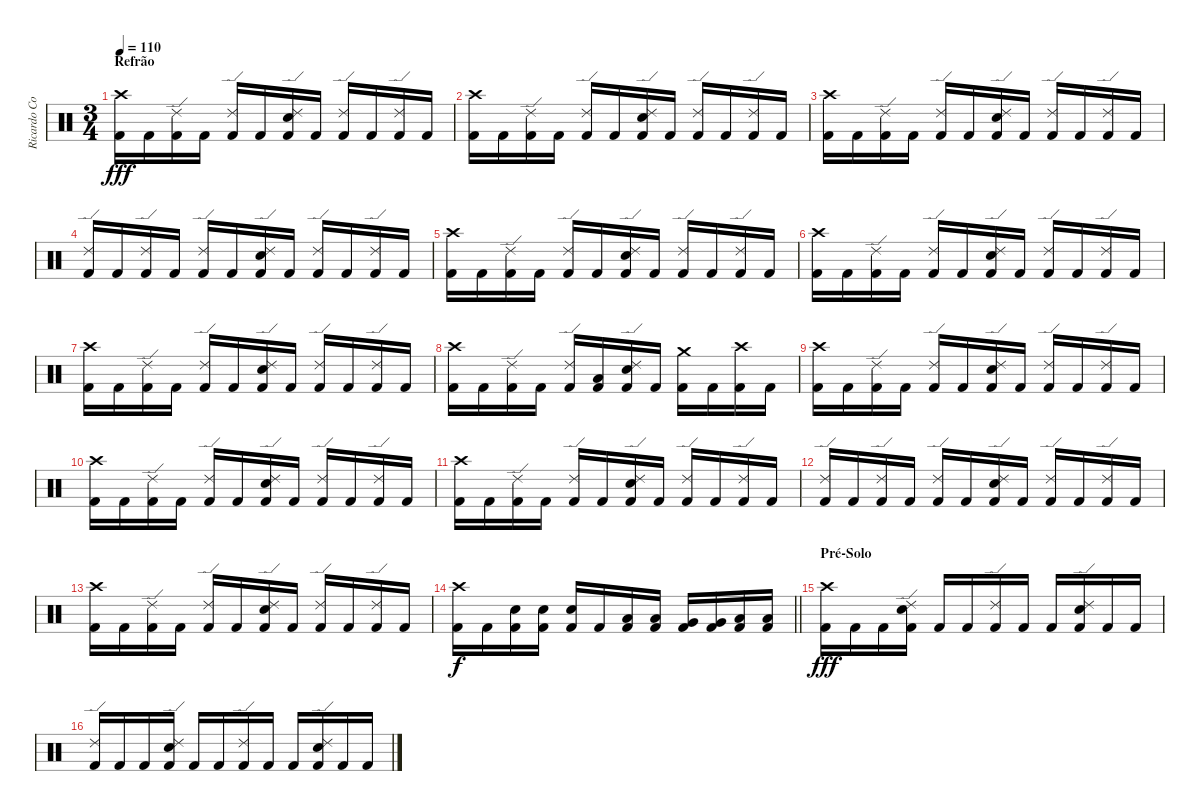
\track ("Ricardo Confessori" "Ricardo Co") {instrument percussion}
\staff {score}
\articulation defaults
\ts (3 4)
\section ("" "Refrão")
\tempo 110
\clef neutral
\ks c
("Crash high (hit)" "Kick (hit) 2").16{dy fff} "Kick (hit) 2".16 ("Ride (edge) 2" "Kick (hit) 2").16 "Kick (hit) 2".16 ("Ride (edge) 2" "Kick (hit) 2").16 "Kick (hit) 2".16 ("Ride (edge) 2" "Electric Snare (hit)" "Kick (hit) 2").16 "Kick (hit) 2".16 ("Ride (edge) 2" "Kick (hit) 2").16 "Kick (hit) 2".16 ("Ride (edge) 2" "Kick (hit) 2").16 "Kick (hit) 2".16 |
("Crash high (hit)" "Kick (hit) 2").16 "Kick (hit) 2".16 ("Ride (edge) 2" "Kick (hit) 2").16 "Kick (hit) 2".16 ("Ride (edge) 2" "Kick (hit) 2").16 "Kick (hit) 2".16 ("Ride (edge) 2" "Electric Snare (hit)" "Kick (hit) 2").16 "Kick (hit) 2".16 ("Ride (edge) 2" "Kick (hit) 2").16 "Kick (hit) 2".16 ("Ride (edge) 2" "Kick (hit) 2").16 "Kick (hit) 2".16 |
("Crash high (hit)" "Kick (hit) 2").16 "Kick (hit) 2".16 ("Ride (edge) 2" "Kick (hit) 2").16 "Kick (hit) 2".16 ("Ride (edge) 2" "Kick (hit) 2").16 "Kick (hit) 2".16 ("Ride (edge) 2" "Electric Snare (hit)" "Kick (hit) 2").16 "Kick (hit) 2".16 ("Ride (edge) 2" "Kick (hit) 2").16 "Kick (hit) 2".16 ("Ride (edge) 2" "Kick (hit) 2").16 "Kick (hit) 2".16 |
("Ride (edge) 2" "Kick (hit) 2").16 "Kick (hit) 2".16 ("Ride (edge) 2" "Kick (hit) 2").16 "Kick (hit) 2".16 ("Ride (edge) 2" "Kick (hit) 2").16 "Kick (hit) 2".16 ("Ride (edge) 2" "Electric Snare (hit)" "Kick (hit) 2").16 "Kick (hit) 2".16 ("Ride (edge) 2" "Kick (hit) 2").16 "Kick (hit) 2".16 ("Ride (edge) 2" "Kick (hit) 2").16 "Kick (hit) 2".16 |
("Crash high (hit)" "Kick (hit) 2").16 "Kick (hit) 2".16 ("Ride (edge) 2" "Kick (hit) 2").16 "Kick (hit) 2".16 ("Ride (edge) 2" "Kick (hit) 2").16 "Kick (hit) 2".16 ("Ride (edge) 2" "Electric Snare (hit)" "Kick (hit) 2").16 "Kick (hit) 2".16 ("Ride (edge) 2" "Kick (hit) 2").16 "Kick (hit) 2".16 ("Ride (edge) 2" "Kick (hit) 2").16 "Kick (hit) 2".16 |
("Crash high (hit)" "Kick (hit) 2").16 "Kick (hit) 2".16 ("Ride (edge) 2" "Kick (hit) 2").16 "Kick (hit) 2".16 ("Ride (edge) 2" "Kick (hit) 2").16 "Kick (hit) 2".16 ("Ride (edge) 2" "Electric Snare (hit)" "Kick (hit) 2").16 "Kick (hit) 2".16 ("Ride (edge) 2" "Kick (hit) 2").16 "Kick (hit) 2".16 ("Ride (edge) 2" "Kick (hit) 2").16 "Kick (hit) 2".16 |
("Crash high (hit)" "Kick (hit) 2").16 "Kick (hit) 2".16 ("Ride (edge) 2" "Kick (hit) 2").16 "Kick (hit) 2".16 ("Ride (edge) 2" "Kick (hit) 2").16 "Kick (hit) 2".16 ("Ride (edge) 2" "Electric Snare (hit)" "Kick (hit) 2").16 "Kick (hit) 2".16 ("Ride (edge) 2" "Kick (hit) 2").16 "Kick (hit) 2".16 ("Ride (edge) 2" "Kick (hit) 2").16 "Kick (hit) 2".16 |
("Crash high (hit)" "Kick (hit) 2").16 "Kick (hit) 2".16 ("Ride (edge) 2" "Kick (hit) 2").16 "Kick (hit) 2".16 ("Ride (edge) 2" "Kick (hit) 2").16 ("Low Tom (hit)" "Kick (hit) 2").16 ("Ride (edge) 2" "Electric Snare (hit)" "Kick (hit) 2").16 "Kick (hit) 2".16 ("Crash medium (hit)" "Kick (hit) 2").16 "Kick (hit) 2".16 ("Crash high (hit)" "Kick (hit) 2").16 "Kick (hit) 2".16 |
("Crash high (hit)" "Kick (hit) 2").16 "Kick (hit) 2".16 ("Ride (edge) 2" "Kick (hit) 2").16 "Kick (hit) 2".16 ("Ride (edge) 2" "Kick (hit) 2").16 "Kick (hit) 2".16 ("Ride (edge) 2" "Electric Snare (hit)" "Kick (hit) 2").16 "Kick (hit) 2".16 ("Ride (edge) 2" "Kick (hit) 2").16 "Kick (hit) 2".16 ("Ride (edge) 2" "Kick (hit) 2").16 "Kick (hit) 2".16 |
("Crash high (hit)" "Kick (hit) 2").16 "Kick (hit) 2".16 ("Ride (edge) 2" "Kick (hit) 2").16 "Kick (hit) 2".16 ("Ride (edge) 2" "Kick (hit) 2").16 "Kick (hit) 2".16 ("Ride (edge) 2" "Electric Snare (hit)" "Kick (hit) 2").16 "Kick (hit) 2".16 ("Ride (edge) 2" "Kick (hit) 2").16 "Kick (hit) 2".16 ("Ride (edge) 2" "Kick (hit) 2").16 "Kick (hit) 2".16 |
("Crash high (hit)" "Kick (hit) 2").16 "Kick (hit) 2".16 ("Ride (edge) 2" "Kick (hit) 2").16 "Kick (hit) 2".16 ("Ride (edge) 2" "Kick (hit) 2").16 "Kick (hit) 2".16 ("Ride (edge) 2" "Electric Snare (hit)" "Kick (hit) 2").16 "Kick (hit) 2".16 ("Ride (edge) 2" "Kick (hit) 2").16 "Kick (hit) 2".16 ("Ride (edge) 2" "Kick (hit) 2").16 "Kick (hit) 2".16 |
("Ride (edge) 2" "Kick (hit) 2").16 "Kick (hit) 2".16 ("Ride (edge) 2" "Kick (hit) 2").16 "Kick (hit) 2".16 ("Ride (edge) 2" "Kick (hit) 2").16 "Kick (hit) 2".16 ("Ride (edge) 2" "Electric Snare (hit)" "Kick (hit) 2").16 "Kick (hit) 2".16 ("Ride (edge) 2" "Kick (hit) 2").16 "Kick (hit) 2".16 ("Ride (edge) 2" "Kick (hit) 2").16 "Kick (hit) 2".16 |
("Crash high (hit)" "Kick (hit) 2").16 "Kick (hit) 2".16 ("Ride (edge) 2" "Kick (hit) 2").16 "Kick (hit) 2".16 ("Ride (edge) 2" "Kick (hit) 2").16 "Kick (hit) 2".16 ("Ride (edge) 2" "Electric Snare (hit)" "Kick (hit) 2").16 "Kick (hit) 2".16 ("Ride (edge) 2" "Kick (hit) 2").16 "Kick (hit) 2".16 ("Ride (edge) 2" "Kick (hit) 2").16 "Kick (hit) 2".16 |
\barLineRight lightlight
("Crash high (hit)" "Kick (hit) 2").16{dy f} "Kick (hit) 2".16 ("Electric Snare (hit)" "Kick (hit) 2").16 ("Electric Snare (hit)" "Kick (hit) 2").16 ("Electric Snare (hit)" "Kick (hit) 2").16 "Kick (hit) 2".16 ("Low Tom (hit)" "Kick (hit) 2").16 ("Low Tom (hit)" "Kick (hit) 2").16 ("Very Low Tom (hit)" "Kick (hit) 2").16 ("Very Low Tom (hit)" "Kick (hit) 2").16 ("Low Floor Tom (hit)" "Kick (hit) 2").16 ("Low Floor Tom (hit)" "Kick (hit) 2").16 |
\section ("" "Pré-Solo")
("Crash high (hit)" "Kick (hit) 2").16{dy fff} "Kick (hit) 2".16 "Kick (hit) 2".16 ("Ride (edge) 2" "Electric Snare (hit)" "Kick (hit) 2").16 "Kick (hit) 2".16 "Kick (hit) 2".16 ("Ride (edge) 2" "Kick (hit) 2").16 "Kick (hit) 2".16 "Kick (hit) 2".16 ("Ride (edge) 2" "Electric Snare (hit)" "Kick (hit) 2").16 "Kick (hit) 2".16 "Kick (hit) 2".16 |
("Ride (edge) 2" "Kick (hit) 2").16 "Kick (hit) 2".16 "Kick (hit) 2".16 ("Ride (edge) 2" "Electric Snare (hit)" "Kick (hit) 2").16 "Kick (hit) 2".16 "Kick (hit) 2".16 ("Ride (edge) 2" "Kick (hit) 2").16 "Kick (hit) 2".16 "Kick (hit) 2".16 ("Ride (edge) 2" "Electric Snare (hit)" "Kick (hit) 2").16 "Kick (hit) 2".16 "Kick (hit) 2".16
